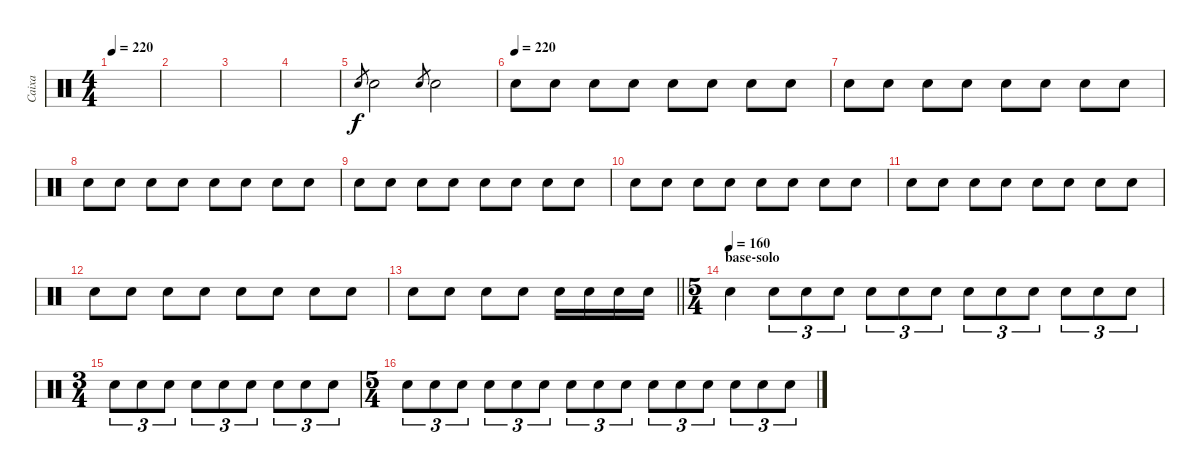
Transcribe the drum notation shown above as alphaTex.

\track ("Caixa" "Caixa") {instrument percussion}
\staff {score}
\articulation defaults
\ts (4 4)
\tempo 220
\clef neutral
\ks c
|
|
|
|
"Electric Snare (hit)".8{gr} "Electric Snare (hit)".2 "Electric Snare (hit)".8{gr} "Electric Snare (hit)".2 |
\tempo (220)
"Electric Snare (hit)".8 "Electric Snare (hit)".8 "Electric Snare (hit)".8 "Electric Snare (hit)".8 "Electric Snare (hit)".8 "Electric Snare (hit)".8 "Electric Snare (hit)".8 "Electric Snare (hit)".8 |
"Electric Snare (hit)".8 "Electric Snare (hit)".8 "Electric Snare (hit)".8 "Electric Snare (hit)".8 "Electric Snare (hit)".8 "Electric Snare (hit)".8 "Electric Snare (hit)".8 "Electric Snare (hit)".8 |
"Electric Snare (hit)".8 "Electric Snare (hit)".8 "Electric Snare (hit)".8 "Electric Snare (hit)".8 "Electric Snare (hit)".8 "Electric Snare (hit)".8 "Electric Snare (hit)".8 "Electric Snare (hit)".8 |
"Electric Snare (hit)".8 "Electric Snare (hit)".8 "Electric Snare (hit)".8 "Electric Snare (hit)".8 "Electric Snare (hit)".8 "Electric Snare (hit)".8 "Electric Snare (hit)".8 "Electric Snare (hit)".8 |
"Electric Snare (hit)".8 "Electric Snare (hit)".8 "Electric Snare (hit)".8 "Electric Snare (hit)".8 "Electric Snare (hit)".8 "Electric Snare (hit)".8 "Electric Snare (hit)".8 "Electric Snare (hit)".8 |
"Electric Snare (hit)".8 "Electric Snare (hit)".8 "Electric Snare (hit)".8 "Electric Snare (hit)".8 "Electric Snare (hit)".8 "Electric Snare (hit)".8 "Electric Snare (hit)".8 "Electric Snare (hit)".8 |
"Electric Snare (hit)".8 "Electric Snare (hit)".8 "Electric Snare (hit)".8 "Electric Snare (hit)".8 "Electric Snare (hit)".8 "Electric Snare (hit)".8 "Electric Snare (hit)".8 "Electric Snare (hit)".8 |
\barLineRight lightlight "Electric Snare (hit)".8 "Electric Snare (hit)".8 "Electric Snare (hit)".8 "Electric Snare (hit)".8 "Electric Snare (hit)".16 "Electric Snare (hit)".16 "Electric Snare (hit)".16 "Electric Snare (hit)".16
|
\ts (5 4)
\section ("" "base-solo")
\tempo (160)
"Electric Snare (hit)".4 "Electric Snare (hit)".8{tu (3 2)} "Electric Snare (hit)".8{tu (3 2)} "Electric Snare (hit)".8{tu (3 2)} "Electric Snare (hit)".8{tu (3 2)} "Electric Snare (hit)".8{tu (3 2)} "Electric Snare (hit)".8{tu (3 2)} "Electric Snare (hit)".8{tu (3 2)} "Electric Snare (hit)".8{tu (3 2)} "Electric Snare (hit)".8{tu (3 2)} "Electric Snare (hit)".8{tu (3 2)} "Electric Snare (hit)".8{tu (3 2)} "Electric Snare (hit)".8{tu (3 2)} |
\ts (3 4)
"Electric Snare (hit)".8{tu (3 2)} "Electric Snare (hit)".8{tu (3 2)} "Electric Snare (hit)".8{tu (3 2)} "Electric Snare (hit)".8{tu (3 2)} "Electric Snare (hit)".8{tu (3 2)} "Electric Snare (hit)".8{tu (3 2)} "Electric Snare (hit)".8{tu (3 2)} "Electric Snare (hit)".8{tu (3 2)} "Electric Snare (hit)".8{tu (3 2)} |
\ts (5 4)
"Electric Snare (hit)".8{tu (3 2)} "Electric Snare (hit)".8{tu (3 2)} "Electric Snare (hit)".8{tu (3 2)} "Electric Snare (hit)".8{tu (3 2)} "Electric Snare (hit)".8{tu (3 2)} "Electric Snare (hit)".8{tu (3 2)} "Electric Snare (hit)".8{tu (3 2)} "Electric Snare (hit)".8{tu (3 2)} "Electric Snare (hit)".8{tu (3 2)} "Electric Snare (hit)".8{tu (3 2)} "Electric Snare (hit)".8{tu (3 2)} "Electric Snare (hit)".8{tu (3 2)} "Electric Snare (hit)".8{tu (3 2)} "Electric Snare (hit)".8{tu (3 2)} "Electric Snare (hit)".8{tu (3 2)}
